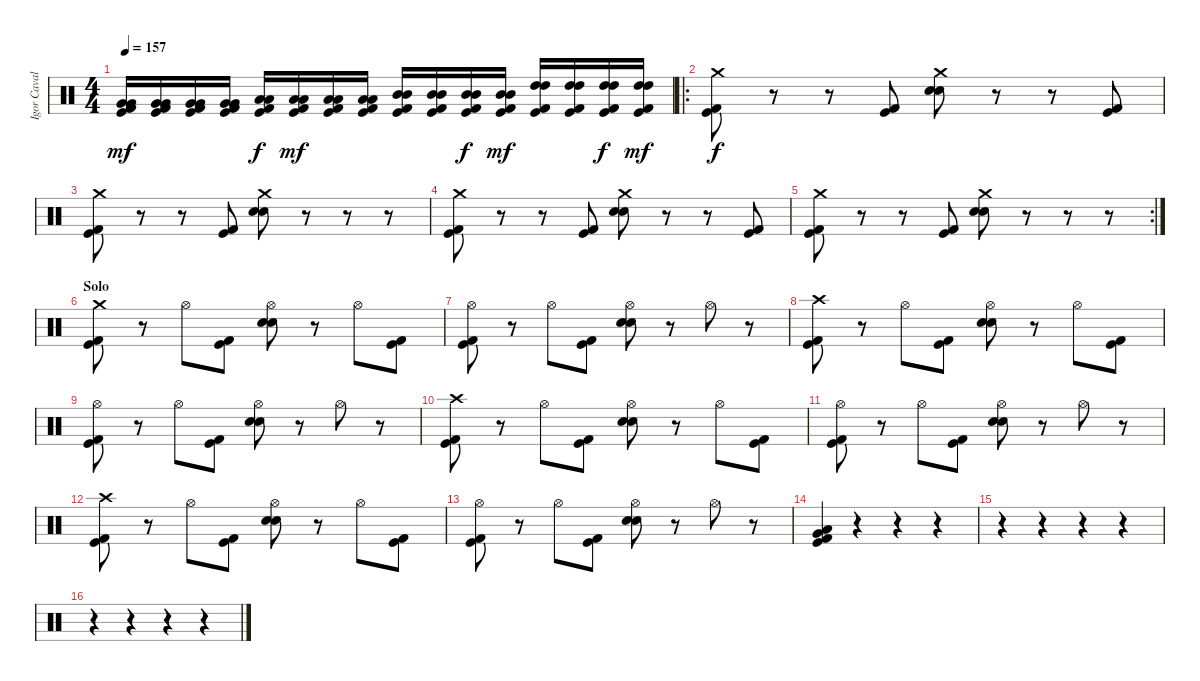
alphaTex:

\track ("Igor Cavalera" "Igor Caval") {instrument percussion}
\staff {score}
\articulation defaults
\ts (4 4)
\tempo 157
\clef neutral
\ks c
("Very Low Tom (hit)" "Very Low Tom (hit)" "Kick (hit) 2" "Kick (hit)").16{dy mf} ("Very Low Tom (hit)" "Very Low Tom (hit)" "Kick (hit) 2" "Kick (hit)").16 ("Very Low Tom (hit)" "Very Low Tom (hit)" "Kick (hit) 2" "Kick (hit)").16 ("Very Low Tom (hit)" "Very Low Tom (hit)" "Kick (hit) 2" "Kick (hit)").16 ("Low Tom (hit)" "Low Tom (hit)" "Kick (hit) 2" "Kick (hit)").16{dy f} ("Low Tom (hit)" "Low Tom (hit)" "Kick (hit) 2" "Kick (hit)").16{dy mf} ("Low Tom (hit)" "Low Tom (hit)" "Kick (hit) 2" "Kick (hit)").16 ("Low Tom (hit)" "Low Tom (hit)" "Kick (hit) 2" "Kick (hit)").16 ("Mid Tom (hit)" "Mid Tom (hit)" "Kick (hit) 2" "Kick (hit)").16 ("Mid Tom (hit)" "Mid Tom (hit)" "Kick (hit) 2" "Kick (hit)").16 ("Mid Tom (hit)" "Mid Tom (hit)" "Kick (hit) 2" "Kick (hit)").16{dy f} ("Mid Tom (hit)" "Mid Tom (hit)" "Kick (hit) 2" "Kick (hit)").16{dy mf} ("High Tom (hit)" "High Tom (hit)" "Kick (hit) 2" "Kick (hit)").16 ("High Tom (hit)" "High Tom (hit)" "Kick (hit) 2" "Kick (hit)").16 ("High Tom (hit)" "High Tom (hit)" "Kick (hit) 2" "Kick (hit)").16{dy f} ("High Tom (hit)" "High Tom (hit)" "Kick (hit) 2" "Kick (hit)").16{dy mf} |
\ro
("Crash medium (hit)" "Kick (hit) 2" "Kick (hit)").8{dy f} r.8 r.8 ("Kick (hit) 2" "Kick (hit)").8 ("Crash medium (hit)" "Electric Snare (hit)" "Snare (hit) 2").8 r.8 r.8 ("Kick (hit) 2" "Kick (hit)").8 |
("Crash medium (hit)" "Kick (hit) 2" "Kick (hit)").8 r.8 r.8 ("Kick (hit) 2" "Kick (hit)").8 ("Crash medium (hit)" "Electric Snare (hit)" "Snare (hit) 2").8 r.8 r.8 r.8 |
("Crash medium (hit)" "Kick (hit) 2" "Kick (hit)").8 r.8 r.8 ("Kick (hit) 2" "Kick (hit)").8 ("Crash medium (hit)" "Electric Snare (hit)" "Snare (hit) 2").8 r.8 r.8 ("Kick (hit) 2" "Kick (hit)").8 |
\rc 2
("Crash medium (hit)" "Kick (hit) 2" "Kick (hit)").8 r.8 r.8 ("Kick (hit) 2" "Kick (hit)").8 ("Crash medium (hit)" "Electric Snare (hit)" "Snare (hit) 2").8 r.8 r.8 r.8 |
\section ("" "Solo")
("Crash medium (hit)" "Kick (hit) 2" "Kick (hit)").8 r.8 "Hi-Hat (open)".8 ("Kick (hit) 2" "Kick (hit)").8 ("Hi-Hat (open)" "Electric Snare (hit)" "Snare (hit) 2").8 r.8 "Hi-Hat (open)".8 ("Kick (hit) 2" "Kick (hit)").8 |
("Hi-Hat (open)" "Kick (hit) 2" "Kick (hit)").8 r.8 "Hi-Hat (open)".8 ("Kick (hit) 2" "Kick (hit)").8 ("Hi-Hat (open)" "Electric Snare (hit)" "Snare (hit) 2").8 r.8 "Hi-Hat (open)".8 r.8 |
("Crash high (hit)" "Kick (hit) 2" "Kick (hit)").8 r.8 "Hi-Hat (open)".8 ("Kick (hit) 2" "Kick (hit)").8 ("Hi-Hat (open)" "Electric Snare (hit)" "Snare (hit) 2").8 r.8 "Hi-Hat (open)".8 ("Kick (hit) 2" "Kick (hit)").8 |
("Hi-Hat (open)" "Kick (hit) 2" "Kick (hit)").8 r.8 "Hi-Hat (open)".8 ("Kick (hit) 2" "Kick (hit)").8 ("Hi-Hat (open)" "Electric Snare (hit)" "Snare (hit) 2").8 r.8 "Hi-Hat (open)".8 r.8 |
("Crash high (hit)" "Kick (hit) 2" "Kick (hit)").8 r.8 "Hi-Hat (open)".8 ("Kick (hit) 2" "Kick (hit)").8 ("Hi-Hat (open)" "Electric Snare (hit)" "Snare (hit) 2").8 r.8 "Hi-Hat (open)".8 ("Kick (hit) 2" "Kick (hit)").8 |
("Hi-Hat (open)" "Kick (hit) 2" "Kick (hit)").8 r.8 "Hi-Hat (open)".8 ("Kick (hit) 2" "Kick (hit)").8 ("Hi-Hat (open)" "Electric Snare (hit)" "Snare (hit) 2").8 r.8 "Hi-Hat (open)".8 r.8 |
("Crash high (hit)" "Kick (hit) 2" "Kick (hit)").8 r.8 "Hi-Hat (open)".8 ("Kick (hit) 2" "Kick (hit)").8 ("Hi-Hat (open)" "Electric Snare (hit)" "Snare (hit) 2").8 r.8 "Hi-Hat (open)".8 ("Kick (hit) 2" "Kick (hit)").8 |
("Hi-Hat (open)" "Kick (hit) 2" "Kick (hit)").8 r.8 "Hi-Hat (open)".8 ("Kick (hit) 2" "Kick (hit)").8 ("Hi-Hat (open)" "Electric Snare (hit)" "Snare (hit) 2").8 r.8 "Hi-Hat (open)".8 r.8 |
("Very Low Tom (hit)" "Low Floor Tom (hit)" "Kick (hit) 2" "Kick (hit)").4 r.4 r.4 r.4 |
r.4 r.4 r.4 r.4 |
r.4 r.4 r.4 r.4
